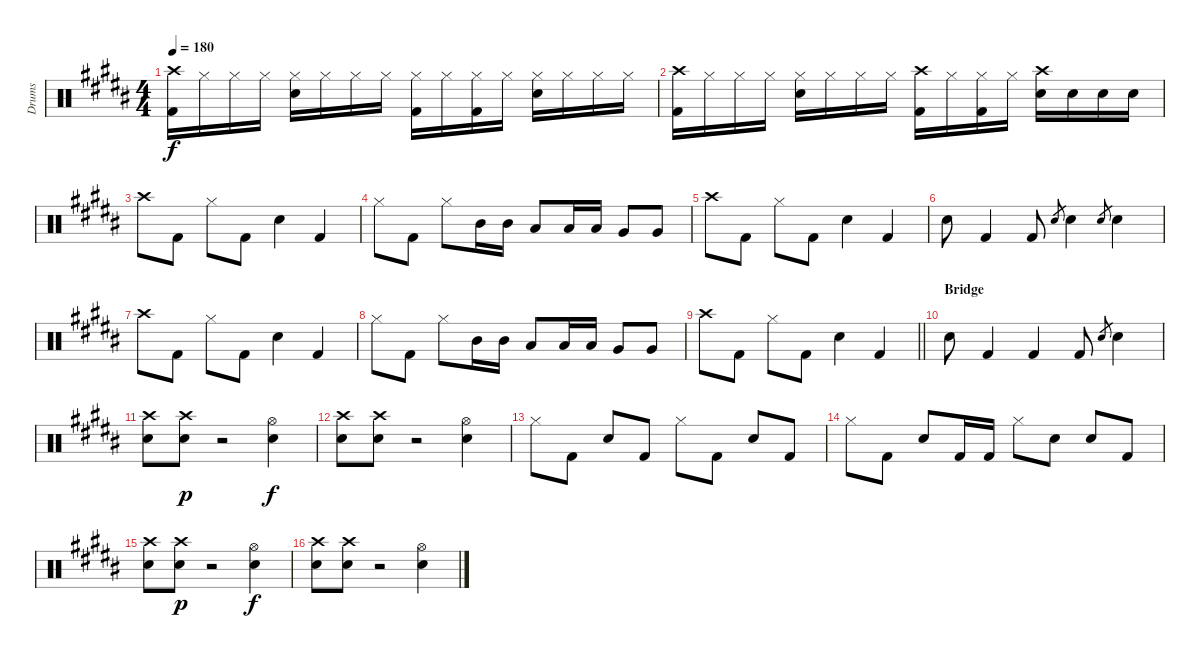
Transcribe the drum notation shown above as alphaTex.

\track ("Drums" "Drums") {instrument percussion}
\staff {score}
\articulation defaults
\ts (4 4)
\tempo 180
\clef neutral
\ks g#minor
("Crash high (hit)" "Kick (hit) 2").16{dy f} "Hi-Hat (closed)".16 "Hi-Hat (closed)".16 "Hi-Hat (closed)".16 ("Hi-Hat (closed)" "Snare (hit) 2").16 "Hi-Hat (closed)".16 "Hi-Hat (closed)".16 "Hi-Hat (closed)".16 ("Hi-Hat (closed)" "Kick (hit) 2").16 "Hi-Hat (closed)".16 ("Hi-Hat (closed)" "Kick (hit) 2").16 "Hi-Hat (closed)".16 ("Hi-Hat (closed)" "Snare (hit) 2").16 "Hi-Hat (closed)".16 "Hi-Hat (closed)".16 "Hi-Hat (closed)".16 |
("Crash high (hit)" "Kick (hit) 2").16 "Hi-Hat (closed)".16 "Hi-Hat (closed)".16 "Hi-Hat (closed)".16 ("Hi-Hat (closed)" "Snare (hit) 2").16 "Hi-Hat (closed)".16 "Hi-Hat (closed)".16 "Hi-Hat (closed)".16 ("Crash high (hit)" "Kick (hit) 2").16 "Hi-Hat (closed)".16 ("Hi-Hat (closed)" "Kick (hit) 2").16 "Hi-Hat (closed)".16 ("Crash high (hit)" "Snare (hit) 2").16 "Snare (hit) 2".16 "Snare (hit) 2".16 "Snare (hit) 2".16 |
"Crash high (hit)".8 "Kick (hit) 2".8 "Hi-Hat (closed)".8 "Kick (hit) 2".8 "Snare (hit) 2".4 "Kick (hit) 2".4 |
"Hi-Hat (closed)".8 "Kick (hit) 2".8 "Hi-Hat (closed)".8 "Mid Tom (hit)".16 "Mid Tom (hit)".16 "Low Tom (hit)".8 "Low Tom (hit)".16 "Low Tom (hit)".16 "Very Low Tom (hit)".8 "Very Low Tom (hit)".8 |
"Crash high (hit)".8 "Kick (hit) 2".8 "Hi-Hat (closed)".8 "Kick (hit) 2".8 "Snare (hit) 2".4 "Kick (hit) 2".4 |
"Snare (hit) 2".8 "Kick (hit) 2".4 "Kick (hit) 2".8 "Snare (hit) 2".8{gr} "Snare (hit) 2".4 "Snare (hit) 2".8{gr} "Snare (hit) 2".4 |
"Crash high (hit)".8 "Kick (hit) 2".8 "Hi-Hat (closed)".8 "Kick (hit) 2".8 "Snare (hit) 2".4 "Kick (hit) 2".4 |
"Hi-Hat (closed)".8 "Kick (hit) 2".8 "Hi-Hat (closed)".8 "Mid Tom (hit)".16 "Mid Tom (hit)".16 "Low Tom (hit)".8 "Low Tom (hit)".16 "Low Tom (hit)".16 "Very Low Tom (hit)".8 "Very Low Tom (hit)".8 |
\barLineRight lightlight "Crash high (hit)".8 "Kick (hit) 2".8 "Hi-Hat (closed)".8 "Kick (hit) 2".8 "Snare (hit) 2".4 "Kick (hit) 2".4
|
\section ("" "Bridge")
"Snare (hit) 2".8 "Kick (hit) 2".4 "Kick (hit) 2".4 "Kick (hit) 2".8 "Snare (hit) 2".8{gr} "Snare (hit) 2".4 |
("Crash high (hit)" "Snare (hit) 2").8 ("Crash high (hit)" "Snare (hit) 2").8{dy p} r.2 ("Hi-Hat (open)" "Snare (hit) 2").4{dy f} |
("Crash high (hit)" "Snare (hit) 2").8 ("Crash high (hit)" "Snare (hit) 2").8 r.2 ("Hi-Hat (open)" "Snare (hit) 2").4 |
"Hi-Hat (closed)".8 "Kick (hit) 2".8 "Snare (hit) 2".8 "Kick (hit) 2".8 "Hi-Hat (closed)".8 "Kick (hit) 2".8 "Snare (hit) 2".8 "Kick (hit) 2".8 |
"Hi-Hat (closed)".8 "Kick (hit) 2".8 "Snare (hit) 2".8 "Kick (hit) 2".16 "Kick (hit) 2".16 "Hi-Hat (closed)".8 "Snare (hit) 2".8 "Snare (hit) 2".8 "Kick (hit) 2".8 |
("Crash high (hit)" "Snare (hit) 2").8 ("Crash high (hit)" "Snare (hit) 2").8{dy p} r.2 ("Hi-Hat (open)" "Snare (hit) 2").4{dy f} |
("Crash high (hit)" "Snare (hit) 2").8 ("Crash high (hit)" "Snare (hit) 2").8 r.2 ("Hi-Hat (open)" "Snare (hit) 2").4
